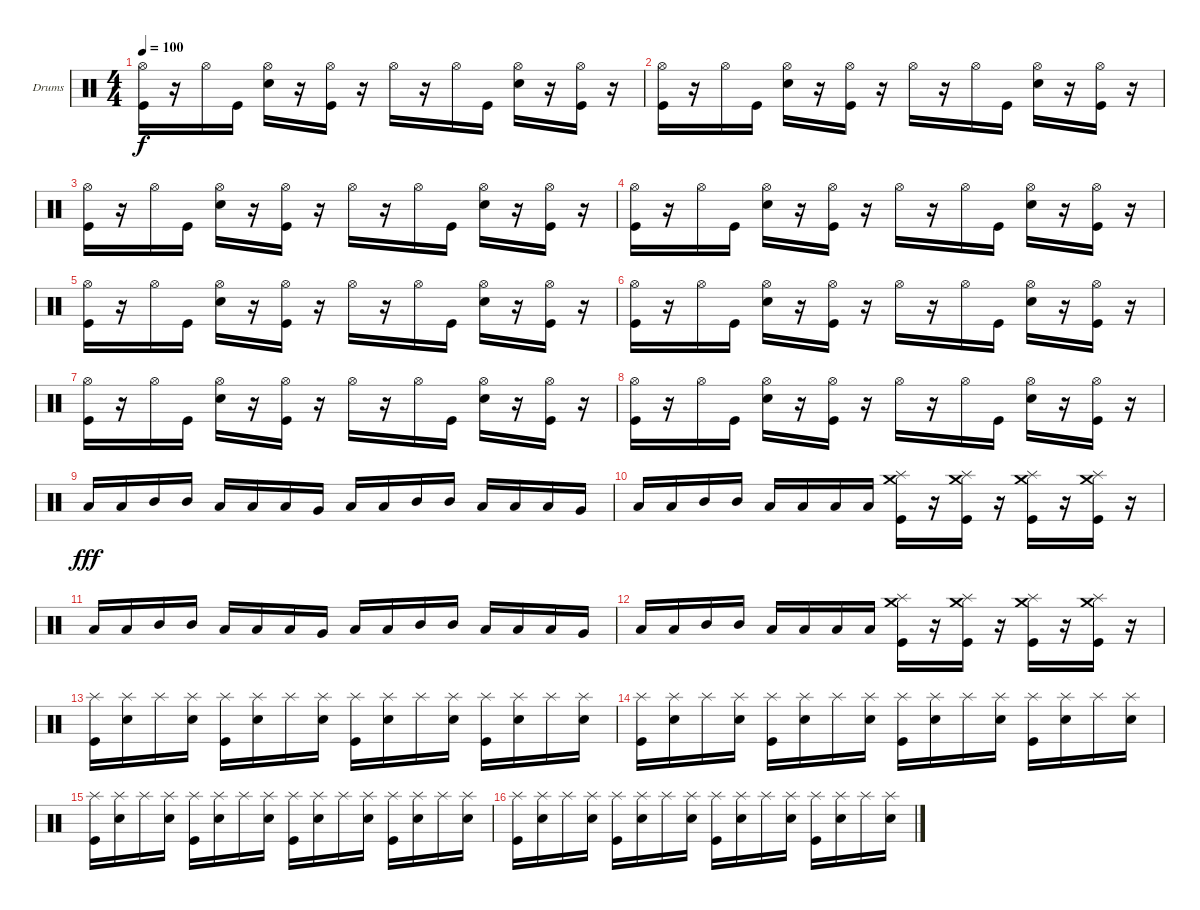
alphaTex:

\bracketExtendMode groupsimilarinstruments
\firstSystemTrackNameOrientation horizontal
\otherSystemsTrackNameOrientation horizontal
\track ("Lars Ulrich (Drum)" "Drums") {instrument percussion}
\staff {score}
\articulation defaults
\ts (4 4)
\tempo 100
\clef neutral
\scale
0.333333
\ks c
("Hi-Hat (open)" "Kick (hit)").16{dy f} r.16 "Hi-Hat (open)".16 "Kick (hit)".16 ("Hi-Hat (open)" "Snare (hit) 2").16 r.16 ("Hi-Hat (open)" "Kick (hit)").16 r.16 "Hi-Hat (open)".16 r.16 "Hi-Hat (open)".16 "Kick (hit)".16 ("Hi-Hat (open)" "Snare (hit) 2").16 r.16 ("Hi-Hat (open)" "Kick (hit)").16 r.16 |
\scale
0.333333 ("Hi-Hat (open)" "Kick (hit)").16 r.16 "Hi-Hat (open)".16 "Kick (hit)".16 ("Hi-Hat (open)" "Snare (hit) 2").16 r.16 ("Hi-Hat (open)" "Kick (hit)").16 r.16 "Hi-Hat (open)".16 r.16 "Hi-Hat (open)".16 "Kick (hit)".16 ("Hi-Hat (open)" "Snare (hit) 2").16 r.16 ("Hi-Hat (open)" "Kick (hit)").16 r.16 |
\scale
0.333333 ("Hi-Hat (open)" "Kick (hit)").16 r.16 "Hi-Hat (open)".16 "Kick (hit)".16 ("Hi-Hat (open)" "Snare (hit) 2").16 r.16 ("Hi-Hat (open)" "Kick (hit)").16 r.16 "Hi-Hat (open)".16 r.16 "Hi-Hat (open)".16 "Kick (hit)".16 ("Hi-Hat (open)" "Snare (hit) 2").16 r.16 ("Hi-Hat (open)" "Kick (hit)").16 r.16 |
\scale
0.333333 ("Hi-Hat (open)" "Kick (hit)").16 r.16 "Hi-Hat (open)".16 "Kick (hit)".16 ("Hi-Hat (open)" "Snare (hit) 2").16 r.16 ("Hi-Hat (open)" "Kick (hit)").16 r.16 "Hi-Hat (open)".16 r.16 "Hi-Hat (open)".16 "Kick (hit)".16 ("Hi-Hat (open)" "Snare (hit) 2").16 r.16 ("Hi-Hat (open)" "Kick (hit)").16 r.16 |
\scale
0.333333 ("Hi-Hat (open)" "Kick (hit)").16 r.16 "Hi-Hat (open)".16 "Kick (hit)".16 ("Hi-Hat (open)" "Snare (hit) 2").16 r.16 ("Hi-Hat (open)" "Kick (hit)").16 r.16 "Hi-Hat (open)".16 r.16 "Hi-Hat (open)".16 "Kick (hit)".16 ("Hi-Hat (open)" "Snare (hit) 2").16 r.16 ("Hi-Hat (open)" "Kick (hit)").16 r.16 |
\scale
0.333333 ("Hi-Hat (open)" "Kick (hit)").16 r.16 "Hi-Hat (open)".16 "Kick (hit)".16 ("Hi-Hat (open)" "Snare (hit) 2").16 r.16 ("Hi-Hat (open)" "Kick (hit)").16 r.16 "Hi-Hat (open)".16 r.16 "Hi-Hat (open)".16 "Kick (hit)".16 ("Hi-Hat (open)" "Snare (hit) 2").16 r.16 ("Hi-Hat (open)" "Kick (hit)").16 r.16 |
\scale
0.333333 ("Hi-Hat (open)" "Kick (hit)").16 r.16 "Hi-Hat (open)".16 "Kick (hit)".16 ("Hi-Hat (open)" "Snare (hit) 2").16 r.16 ("Hi-Hat (open)" "Kick (hit)").16 r.16 "Hi-Hat (open)".16 r.16 "Hi-Hat (open)".16 "Kick (hit)".16 ("Hi-Hat (open)" "Snare (hit) 2").16 r.16 ("Hi-Hat (open)" "Kick (hit)").16 r.16 |
\scale
0.333333 ("Hi-Hat (open)" "Kick (hit)").16 r.16 "Hi-Hat (open)".16 "Kick (hit)".16 ("Hi-Hat (open)" "Snare (hit) 2").16 r.16 ("Hi-Hat (open)" "Kick (hit)").16 r.16 "Hi-Hat (open)".16 r.16 "Hi-Hat (open)".16 "Kick (hit)".16 ("Hi-Hat (open)" "Snare (hit) 2").16 r.16 ("Hi-Hat (open)" "Kick (hit)").16 r.16 |
\scale
0.333333 "Low Tom (hit)".16{dy fff} "Low Tom (hit)".16 "Mid Tom (hit)".16 "Mid Tom (hit)".16 "Low Tom (hit)".16 "Low Tom (hit)".16 "Low Tom (hit)".16 "Very Low Tom (hit)".16 "Low Tom (hit)".16 "Low Tom (hit)".16 "Mid Tom (hit)".16 "Mid Tom (hit)".16 "Low Tom (hit)".16 "Low Tom (hit)".16 "Low Tom (hit)".16 "Very Low Tom (hit)".16 |
\scale
0.333333 "Low Tom (hit)".16 "Low Tom (hit)".16 "Mid Tom (hit)".16 "Mid Tom (hit)".16 "Low Tom (hit)".16 "Low Tom (hit)".16 "Low Tom (hit)".16 "Low Tom (hit)".16 ("Splash (hit)" "Crash medium (hit)" "Kick (hit)").16 r.16 ("Splash (hit)" "Crash medium (hit)" "Kick (hit)").16 r.16 ("Splash (hit)" "Crash medium (hit)" "Kick (hit)").16 r.16 ("Splash (hit)" "Crash medium (hit)" "Kick (hit)").16 r.16 |
\scale
0.333333 "Low Tom (hit)".16 "Low Tom (hit)".16 "Mid Tom (hit)".16 "Mid Tom (hit)".16 "Low Tom (hit)".16 "Low Tom (hit)".16 "Low Tom (hit)".16 "Very Low Tom (hit)".16 "Low Tom (hit)".16 "Low Tom (hit)".16 "Mid Tom (hit)".16 "Mid Tom (hit)".16 "Low Tom (hit)".16 "Low Tom (hit)".16 "Low Tom (hit)".16 "Very Low Tom (hit)".16 |
\scale
0.333333 "Low Tom (hit)".16 "Low Tom (hit)".16 "Mid Tom (hit)".16 "Mid Tom (hit)".16 "Low Tom (hit)".16 "Low Tom (hit)".16 "Low Tom (hit)".16 "Low Tom (hit)".16 ("Splash (hit)" "Crash medium (hit)" "Kick (hit)").16 r.16 ("Splash (hit)" "Crash medium (hit)" "Kick (hit)").16 r.16 ("Splash (hit)" "Crash medium (hit)" "Kick (hit)").16 r.16 ("Splash (hit)" "Crash medium (hit)" "Kick (hit)").16 r.16 |
\scale
0.333333 ("Splash (hit)" "Kick (hit)").16 ("Splash (hit)" "Snare (hit) 2").16 "Splash (hit)".16 ("Splash (hit)" "Snare (hit) 2").16 ("Splash (hit)" "Kick (hit)").16 ("Splash (hit)" "Snare (hit) 2").16 "Splash (hit)".16 ("Splash (hit)" "Snare (hit) 2").16 ("Splash (hit)" "Kick (hit)").16 ("Splash (hit)" "Snare (hit) 2").16 "Splash (hit)".16 ("Splash (hit)" "Snare (hit) 2").16 ("Splash (hit)" "Kick (hit)").16 ("Splash (hit)" "Snare (hit) 2").16 "Splash (hit)".16 ("Splash (hit)" "Snare (hit) 2").16 |
\scale
0.333333 ("Splash (hit)" "Kick (hit)").16 ("Splash (hit)" "Snare (hit) 2").16 "Splash (hit)".16 ("Splash (hit)" "Snare (hit) 2").16 ("Splash (hit)" "Kick (hit)").16 ("Splash (hit)" "Snare (hit) 2").16 "Splash (hit)".16 ("Splash (hit)" "Snare (hit) 2").16 ("Splash (hit)" "Kick (hit)").16 ("Splash (hit)" "Snare (hit) 2").16 "Splash (hit)".16 ("Splash (hit)" "Snare (hit) 2").16 ("Splash (hit)" "Kick (hit)").16 ("Splash (hit)" "Snare (hit) 2").16 "Splash (hit)".16 ("Splash (hit)" "Snare (hit) 2").16 |
\scale
0.333333 ("Splash (hit)" "Kick (hit)").16 ("Splash (hit)" "Snare (hit) 2").16 "Splash (hit)".16 ("Splash (hit)" "Snare (hit) 2").16 ("Splash (hit)" "Kick (hit)").16 ("Splash (hit)" "Snare (hit) 2").16 "Splash (hit)".16 ("Splash (hit)" "Snare (hit) 2").16 ("Splash (hit)" "Kick (hit)").16 ("Splash (hit)" "Snare (hit) 2").16 "Splash (hit)".16 ("Splash (hit)" "Snare (hit) 2").16 ("Splash (hit)" "Kick (hit)").16 ("Splash (hit)" "Snare (hit) 2").16 "Splash (hit)".16 ("Splash (hit)" "Snare (hit) 2").16 |
\scale
0.333333 ("Splash (hit)" "Kick (hit)").16 ("Splash (hit)" "Snare (hit) 2").16 "Splash (hit)".16 ("Splash (hit)" "Snare (hit) 2").16 ("Splash (hit)" "Kick (hit)").16 ("Splash (hit)" "Snare (hit) 2").16 "Splash (hit)".16 ("Splash (hit)" "Snare (hit) 2").16 ("Splash (hit)" "Kick (hit)").16 ("Splash (hit)" "Snare (hit) 2").16 "Splash (hit)".16 ("Splash (hit)" "Snare (hit) 2").16 ("Splash (hit)" "Kick (hit)").16 ("Splash (hit)" "Snare (hit) 2").16 "Splash (hit)".16 ("Splash (hit)" "Snare (hit) 2").16
